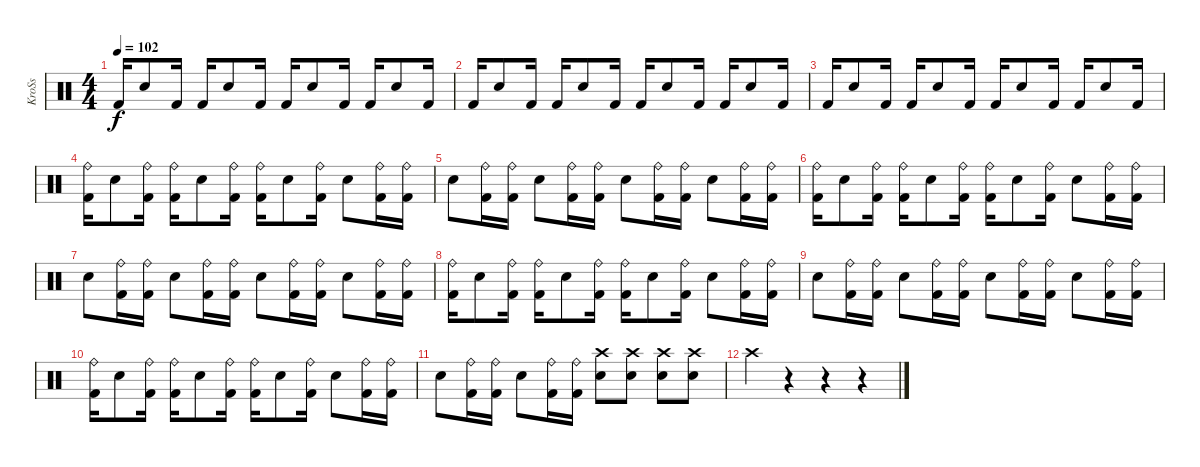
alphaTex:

\track ("KroSs" "KroSs") {instrument percussion}
\staff {score}
\articulation defaults
\ts (4 4)
\tempo 102
\clef neutral
\ks c "Kick (hit) 2".16{dy f} "Snare (hit) 2".8 "Kick (hit) 2".16 "Kick (hit) 2".16 "Snare (hit) 2".8 "Kick (hit) 2".16 "Kick (hit) 2".16 "Snare (hit) 2".8 "Kick (hit) 2".16 "Kick (hit) 2".16 "Snare (hit) 2".8 "Kick (hit) 2".16
|
"Kick (hit) 2".16 "Snare (hit) 2".8 "Kick (hit) 2".16 "Kick (hit) 2".16 "Snare (hit) 2".8 "Kick (hit) 2".16 "Kick (hit) 2".16 "Snare (hit) 2".8 "Kick (hit) 2".16 "Kick (hit) 2".16 "Snare (hit) 2".8 "Kick (hit) 2".16 |
"Kick (hit) 2".16 "Snare (hit) 2".8 "Kick (hit) 2".16 "Kick (hit) 2".16 "Snare (hit) 2".8 "Kick (hit) 2".16 "Kick (hit) 2".16 "Snare (hit) 2".8 "Kick (hit) 2".16 "Kick (hit) 2".16 "Snare (hit) 2".8 "Kick (hit) 2".16 |
("Ride (bell)" "Kick (hit) 2").16 "Snare (hit) 2".8 ("Ride (bell)" "Kick (hit) 2").16 ("Ride (bell)" "Kick (hit) 2").16 "Snare (hit) 2".8 ("Ride (bell)" "Kick (hit) 2").16 ("Ride (bell)" "Kick (hit) 2").16 "Snare (hit) 2".8 ("Ride (bell)" "Kick (hit) 2").16 "Snare (hit) 2".8 ("Ride (bell)" "Kick (hit) 2").16 ("Ride (bell)" "Kick (hit) 2").16 |
"Snare (hit) 2".8 ("Ride (bell)" "Kick (hit) 2").16 ("Ride (bell)" "Kick (hit) 2").16 "Snare (hit) 2".8 ("Ride (bell)" "Kick (hit) 2").16 ("Ride (bell)" "Kick (hit) 2").16 "Snare (hit) 2".8 ("Ride (bell)" "Kick (hit) 2").16 ("Ride (bell)" "Kick (hit) 2").16 "Snare (hit) 2".8 ("Ride (bell)" "Kick (hit) 2").16 ("Ride (bell)" "Kick (hit) 2").16 |
("Ride (bell)" "Kick (hit) 2").16 "Snare (hit) 2".8 ("Ride (bell)" "Kick (hit) 2").16 ("Ride (bell)" "Kick (hit) 2").16 "Snare (hit) 2".8 ("Ride (bell)" "Kick (hit) 2").16 ("Ride (bell)" "Kick (hit) 2").16 "Snare (hit) 2".8 ("Ride (bell)" "Kick (hit) 2").16 "Snare (hit) 2".8 ("Ride (bell)" "Kick (hit) 2").16 ("Ride (bell)" "Kick (hit) 2").16 |
"Snare (hit) 2".8 ("Ride (bell)" "Kick (hit) 2").16 ("Ride (bell)" "Kick (hit) 2").16 "Snare (hit) 2".8 ("Ride (bell)" "Kick (hit) 2").16 ("Ride (bell)" "Kick (hit) 2").16 "Snare (hit) 2".8 ("Ride (bell)" "Kick (hit) 2").16 ("Ride (bell)" "Kick (hit) 2").16 "Snare (hit) 2".8 ("Ride (bell)" "Kick (hit) 2").16 ("Ride (bell)" "Kick (hit) 2").16 |
("Ride (bell)" "Kick (hit) 2").16 "Snare (hit) 2".8 ("Ride (bell)" "Kick (hit) 2").16 ("Ride (bell)" "Kick (hit) 2").16 "Snare (hit) 2".8 ("Ride (bell)" "Kick (hit) 2").16 ("Ride (bell)" "Kick (hit) 2").16 "Snare (hit) 2".8 ("Ride (bell)" "Kick (hit) 2").16 "Snare (hit) 2".8 ("Ride (bell)" "Kick (hit) 2").16 ("Ride (bell)" "Kick (hit) 2").16 |
"Snare (hit) 2".8 ("Ride (bell)" "Kick (hit) 2").16 ("Ride (bell)" "Kick (hit) 2").16 "Snare (hit) 2".8 ("Ride (bell)" "Kick (hit) 2").16 ("Ride (bell)" "Kick (hit) 2").16 "Snare (hit) 2".8 ("Ride (bell)" "Kick (hit) 2").16 ("Ride (bell)" "Kick (hit) 2").16 "Snare (hit) 2".8 ("Ride (bell)" "Kick (hit) 2").16 ("Ride (bell)" "Kick (hit) 2").16 |
("Ride (bell)" "Kick (hit) 2").16 "Snare (hit) 2".8 ("Ride (bell)" "Kick (hit) 2").16 ("Ride (bell)" "Kick (hit) 2").16 "Snare (hit) 2".8 ("Ride (bell)" "Kick (hit) 2").16 ("Ride (bell)" "Kick (hit) 2").16 "Snare (hit) 2".8 ("Ride (bell)" "Kick (hit) 2").16 "Snare (hit) 2".8 ("Ride (bell)" "Kick (hit) 2").16 ("Ride (bell)" "Kick (hit) 2").16 |
"Snare (hit) 2".8 ("Ride (bell)" "Kick (hit) 2").16 ("Ride (bell)" "Kick (hit) 2").16 "Snare (hit) 2".8 ("Ride (bell)" "Kick (hit) 2").16 ("Ride (bell)" "Kick (hit) 2").16 ("Crash high (hit)" "Snare (hit) 2").8 ("Crash high (hit)" "Snare (hit) 2").8 ("Crash high (hit)" "Snare (hit) 2").8 ("Crash high (hit)" "Snare (hit) 2").8 |
"Crash high (hit)".4 r.4 r.4 r.4
